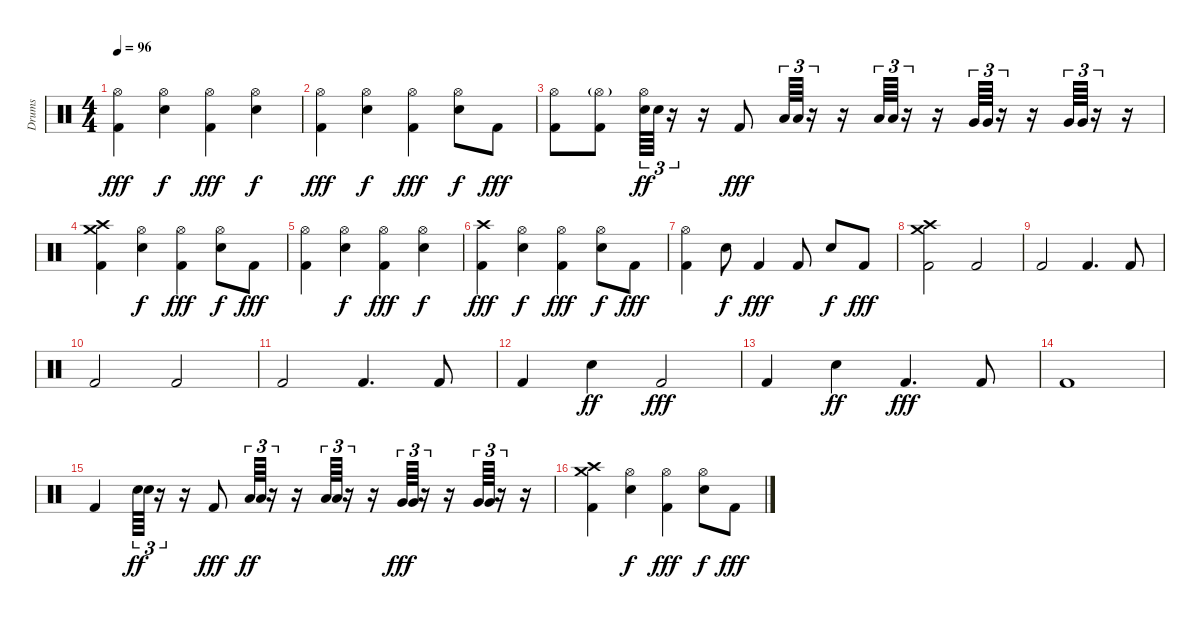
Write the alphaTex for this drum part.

\track ("Drums" "Drums") {instrument percussion}
\staff {score}
\articulation defaults
\ts (4 4)
\tempo 96
\clef neutral
\ks c
("Hi-Hat (open)" "Kick (hit) 2").4{dy fff} ("Hi-Hat (open)" "Electric Snare (hit)").4{dy f} ("Hi-Hat (open)" "Kick (hit) 2").4{dy fff} ("Hi-Hat (open)" "Electric Snare (hit)").4{dy f} |
("Hi-Hat (open)" "Kick (hit) 2").4{dy fff} ("Hi-Hat (open)" "Electric Snare (hit)").4{dy f} ("Hi-Hat (open)" "Kick (hit) 2").4{dy fff} ("Hi-Hat (open)" "Electric Snare (hit)").8{dy f} "Kick (hit) 2".8{dy fff} |
("Hi-Hat (open)" "Kick (hit) 2").8 ("Hi-Hat (open)"{g} "Kick (hit) 2").8 ("Hi-Hat (open)" "Electric Snare (hit)").64{tu (3 2) dy ff} "Electric Snare (hit)".64{tu (3 2)} r.16{tu (3 2)} r.16 "Kick (hit) 2".8{dy fff} "Low Tom (hit)".64{tu (3 2)} "Low Tom (hit)".64{tu (3 2)} r.16{tu (3 2)} r.16 "Low Tom (hit)".64{tu (3 2)} "Low Tom (hit)".64{tu (3 2)} r.16{tu (3 2)} r.16 "Very Low Tom (hit)".64{tu (3 2)} "Very Low Tom (hit)".64{tu (3 2)} r.16{tu (3 2)} r.16 "Very Low Tom (hit)".64{tu (3 2)} "Very Low Tom (hit)".64{tu (3 2)} r.16{tu (3 2)} r.16 |
("Crash high (hit)" "Crash medium (hit)" "Kick (hit) 2").4 ("Hi-Hat (open)" "Electric Snare (hit)").4{dy f} ("Hi-Hat (open)" "Kick (hit) 2").4{dy fff} ("Hi-Hat (open)" "Electric Snare (hit)").8{dy f} "Kick (hit) 2".8{dy fff} |
("Hi-Hat (open)" "Kick (hit) 2").4 ("Hi-Hat (open)" "Electric Snare (hit)").4{dy f} ("Hi-Hat (open)" "Kick (hit) 2").4{dy fff} ("Hi-Hat (open)" "Electric Snare (hit)").4{dy f} |
("Crash high (hit)" "Kick (hit) 2").4{dy fff} ("Hi-Hat (open)" "Electric Snare (hit)").4{dy f} ("Hi-Hat (open)" "Kick (hit) 2").4{dy fff} ("Hi-Hat (open)" "Electric Snare (hit)").8{dy f} "Kick (hit) 2".8{dy fff} |
("Hi-Hat (open)" "Kick (hit) 2").4 "Electric Snare (hit)".8{dy f} "Kick (hit) 2".4{dy fff} "Kick (hit) 2".8 "Electric Snare (hit)".8{dy f} "Kick (hit) 2".8{dy fff} |
("Crash high (hit)" "Crash medium (hit)" "Kick (hit) 2").2 "Kick (hit) 2".2 |
"Kick (hit) 2".2 "Kick (hit) 2".4{d} "Kick (hit) 2".8 |
"Kick (hit) 2".2 "Kick (hit) 2".2 |
"Kick (hit) 2".2 "Kick (hit) 2".4{d} "Kick (hit) 2".8 |
"Kick (hit) 2".4 "Electric Snare (hit)".4{dy ff} "Kick (hit) 2".2{dy fff} |
"Kick (hit) 2".4 "Electric Snare (hit)".4{dy ff} "Kick (hit) 2".4{d dy fff} "Kick (hit) 2".8 |
"Kick (hit) 2".1 |
"Kick (hit) 2".4 "Electric Snare (hit)".64{tu (3 2) dy ff} "Electric Snare (hit)".64{tu (3 2)} r.16{tu (3 2)} r.16 "Kick (hit) 2".8{dy fff} "Low Tom (hit)".64{tu (3 2) dy ff} "Low Tom (hit)".64{tu (3 2)} r.16{tu (3 2)} r.16 "Low Tom (hit)".64{tu (3 2)} "Low Tom (hit)".64{tu (3 2)} r.16{tu (3 2)} r.16 "Very Low Tom (hit)".64{tu (3 2) dy fff} "Very Low Tom (hit)".64{tu (3 2)} r.16{tu (3 2)} r.16 "Very Low Tom (hit)".64{tu (3 2)} "Very Low Tom (hit)".64{tu (3 2)} r.16{tu (3 2)} r.16 |
("Crash high (hit)" "Crash medium (hit)" "Kick (hit) 2").4 ("Hi-Hat (open)" "Electric Snare (hit)").4{dy f} ("Hi-Hat (open)" "Kick (hit) 2").4{dy fff} ("Hi-Hat (open)" "Electric Snare (hit)").8{dy f} "Kick (hit) 2".8{dy fff}
